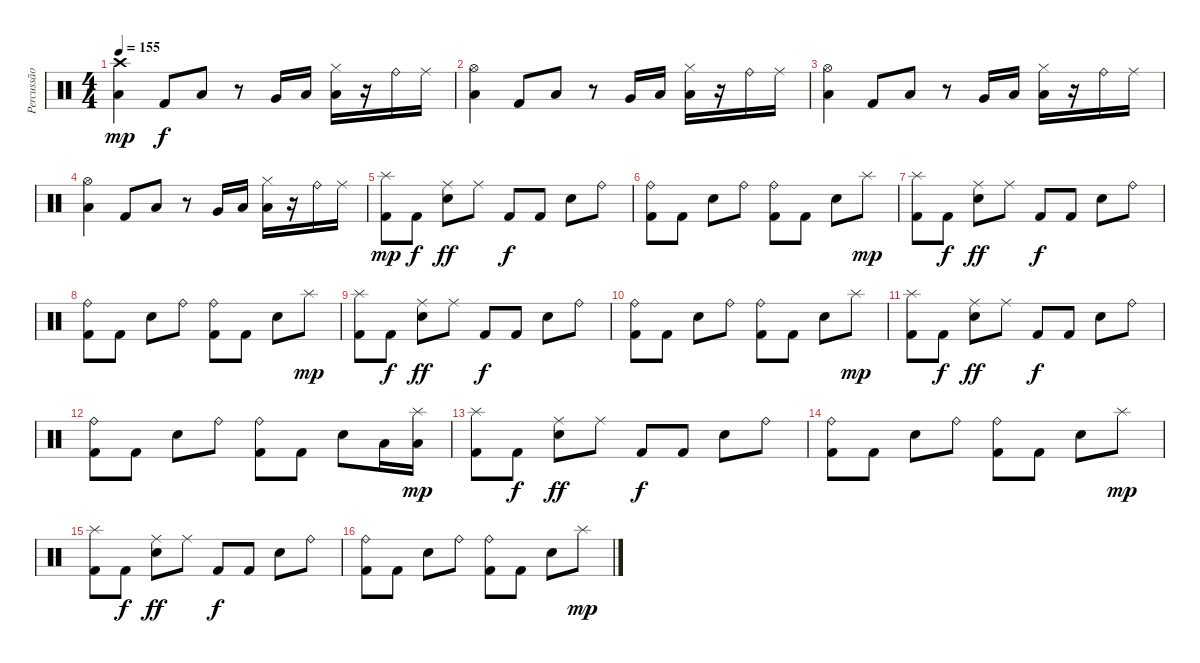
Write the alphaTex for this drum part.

\track ("Percussão" "Percussão") {instrument percussion}
\staff {score}
\articulation defaults
\ts (4 4)
\tempo 155
\clef neutral
\ks c
("Crash high (hit)" "Low Tom (hit)").4{dy mp} "Kick (hit) 2".8{dy f} "Low Tom (hit)".8 r.8 "Very Low Tom (hit)".16 "Low Tom (hit)".16 ("Hi-Hat (closed)" "Low Tom (hit)").16 r.16 "Ride (bell)".16 "Ride (middle)".16 |
("Hi-Hat (open)" "Low Tom (hit)").4 "Kick (hit) 2".8 "Low Tom (hit)".8 r.8 "Very Low Tom (hit)".16 "Low Tom (hit)".16 ("Hi-Hat (closed)" "Low Tom (hit)").16 r.16 "Ride (bell)".16 "Ride (middle)".16 |
("Hi-Hat (open)" "Low Tom (hit)").4 "Kick (hit) 2".8 "Low Tom (hit)".8 r.8 "Very Low Tom (hit)".16 "Low Tom (hit)".16 ("Hi-Hat (closed)" "Low Tom (hit)").16 r.16 "Ride (bell)".16 "Ride (middle)".16 |
("Hi-Hat (open)" "Low Tom (hit)").4 "Kick (hit) 2".8 "Low Tom (hit)".8 r.8 "Very Low Tom (hit)".16 "Low Tom (hit)".16 ("Hi-Hat (closed)" "Low Tom (hit)").16 r.16 "Ride (bell)".16 "Ride (middle)".16 |
("Splash (hit)" "Kick (hit) 2").8{dy mp} "Kick (hit) 2".8{dy f} ("Ride (middle)" "Electric Snare (hit)").8{dy ff} "Ride (middle)".8 "Kick (hit) 2".8{dy f} "Kick (hit) 2".8 "Electric Snare (hit)".8 "Ride (bell)".8 |
("Ride (bell)" "Kick (hit) 2").8 "Kick (hit) 2".8 "Electric Snare (hit)".8 "Ride (bell)".8 ("Ride (bell)" "Kick (hit) 2").8 "Kick (hit) 2".8 "Electric Snare (hit)".8 "Splash (hit)".8{dy mp} |
("Splash (hit)" "Kick (hit) 2").8 "Kick (hit) 2".8{dy f} ("Ride (middle)" "Electric Snare (hit)").8{dy ff} "Ride (middle)".8 "Kick (hit) 2".8{dy f} "Kick (hit) 2".8 "Electric Snare (hit)".8 "Ride (bell)".8 |
("Ride (bell)" "Kick (hit) 2").8 "Kick (hit) 2".8 "Electric Snare (hit)".8 "Ride (bell)".8 ("Ride (bell)" "Kick (hit) 2").8 "Kick (hit) 2".8 "Electric Snare (hit)".8 "Splash (hit)".8{dy mp} |
("Splash (hit)" "Kick (hit) 2").8 "Kick (hit) 2".8{dy f} ("Ride (middle)" "Electric Snare (hit)").8{dy ff} "Ride (middle)".8 "Kick (hit) 2".8{dy f} "Kick (hit) 2".8 "Electric Snare (hit)".8 "Ride (bell)".8 |
("Ride (bell)" "Kick (hit) 2").8 "Kick (hit) 2".8 "Electric Snare (hit)".8 "Ride (bell)".8 ("Ride (bell)" "Kick (hit) 2").8 "Kick (hit) 2".8 "Electric Snare (hit)".8 "Splash (hit)".8{dy mp} |
("Splash (hit)" "Kick (hit) 2").8 "Kick (hit) 2".8{dy f} ("Ride (middle)" "Electric Snare (hit)").8{dy ff} "Ride (middle)".8 "Kick (hit) 2".8{dy f} "Kick (hit) 2".8 "Electric Snare (hit)".8 "Ride (bell)".8 |
("Ride (bell)" "Kick (hit) 2").8 "Kick (hit) 2".8 "Electric Snare (hit)".8 "Ride (bell)".8 ("Ride (bell)" "Kick (hit) 2").8 "Kick (hit) 2".8 "Electric Snare (hit)".8 "Low Tom (hit)".16 ("Splash (hit)" "Low Tom (hit)").16{dy mp} |
("Splash (hit)" "Kick (hit) 2").8 "Kick (hit) 2".8{dy f} ("Ride (middle)" "Electric Snare (hit)").8{dy ff} "Ride (middle)".8 "Kick (hit) 2".8{dy f} "Kick (hit) 2".8 "Electric Snare (hit)".8 "Ride (bell)".8 |
("Ride (bell)" "Kick (hit) 2").8 "Kick (hit) 2".8 "Electric Snare (hit)".8 "Ride (bell)".8 ("Ride (bell)" "Kick (hit) 2").8 "Kick (hit) 2".8 "Electric Snare (hit)".8 "Splash (hit)".8{dy mp} |
("Splash (hit)" "Kick (hit) 2").8 "Kick (hit) 2".8{dy f} ("Ride (middle)" "Electric Snare (hit)").8{dy ff} "Ride (middle)".8 "Kick (hit) 2".8{dy f} "Kick (hit) 2".8 "Electric Snare (hit)".8 "Ride (bell)".8 |
("Ride (bell)" "Kick (hit) 2").8 "Kick (hit) 2".8 "Electric Snare (hit)".8 "Ride (bell)".8 ("Ride (bell)" "Kick (hit) 2").8 "Kick (hit) 2".8 "Electric Snare (hit)".8 "Splash (hit)".8{dy mp}
